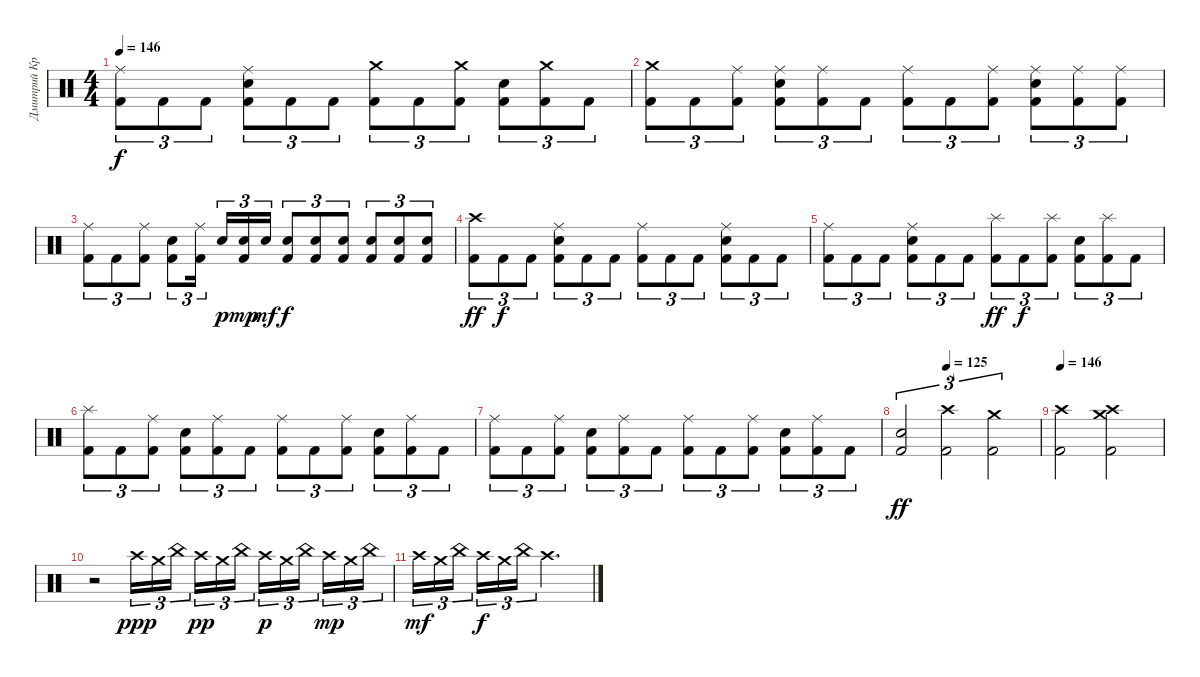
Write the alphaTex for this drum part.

\track ("Дмитрий Кривенков" "Дмитрий Кр") {instrument percussion}
\staff {score}
\articulation defaults
\ts (4 4)
\tempo 146
\clef neutral
\ks c
("Ride (middle)" "Kick (hit) 2").8{tu (3 2) dy f} "Kick (hit) 2".8{tu (3 2)} "Kick (hit) 2".8{tu (3 2)} ("Ride (middle)" "Electric Snare (hit)" "Kick (hit) 2").8{tu (3 2)} "Kick (hit) 2".8{tu (3 2)} "Kick (hit) 2".8{tu (3 2)} ("Crash medium (hit)" "Kick (hit) 2").8{tu (3 2)} "Kick (hit) 2".8{tu (3 2)} ("Crash medium (hit)" "Kick (hit) 2").8{tu (3 2)} ("Electric Snare (hit)" "Kick (hit) 2").8{tu (3 2)} ("Crash medium (hit)" "Kick (hit) 2").8{tu (3 2)} "Kick (hit) 2".8{tu (3 2)} |
("Crash medium (hit)" "Kick (hit) 2").8{tu (3 2)} "Kick (hit) 2".8{tu (3 2)} ("Ride (middle)" "Kick (hit) 2").8{tu (3 2)} ("Ride (middle)" "Electric Snare (hit)" "Kick (hit) 2").8{tu (3 2)} ("Ride (middle)" "Kick (hit) 2").8{tu (3 2)} "Kick (hit) 2".8{tu (3 2)} ("Ride (middle)" "Kick (hit) 2").8{tu (3 2)} "Kick (hit) 2".8{tu (3 2)} ("Ride (middle)" "Kick (hit) 2").8{tu (3 2)} ("Ride (middle)" "Electric Snare (hit)" "Kick (hit) 2").8{tu (3 2)} ("Ride (middle)" "Kick (hit) 2").8{tu (3 2)} ("Ride (middle)" "Kick (hit) 2").8{tu (3 2)} |
("Ride (middle)" "Kick (hit) 2").8{tu (3 2)} "Kick (hit) 2".8{tu (3 2)} ("Ride (middle)" "Kick (hit) 2").8{tu (3 2)} ("Electric Snare (hit)" "Kick (hit) 2").8{tu (3 2)} ("Ride (middle)" "Kick (hit) 2").16{tu (3 2) beam splitsecondary} "Electric Snare (hit)".16{tu (3 2) dy p} ("Electric Snare (hit)" "Kick (hit) 2").16{tu (3 2) dy mp} "Electric Snare (hit)".16{tu (3 2) dy mf} ("Electric Snare (hit)" "Kick (hit) 2").8{tu (3 2) dy f} ("Electric Snare (hit)" "Kick (hit) 2").8{tu (3 2)} ("Electric Snare (hit)" "Kick (hit) 2").8{tu (3 2)} ("Electric Snare (hit)" "Kick (hit) 2").8{tu (3 2)} ("Electric Snare (hit)" "Kick (hit) 2").8{tu (3 2)} ("Electric Snare (hit)" "Kick (hit) 2").8{tu (3 2)} |
("Crash high (hit)" "Kick (hit) 2").8{tu (3 2) dy ff} "Kick (hit) 2".8{tu (3 2) dy f} "Kick (hit) 2".8{tu (3 2)} ("Ride (middle)" "Electric Snare (hit)" "Kick (hit) 2").8{tu (3 2)} "Kick (hit) 2".8{tu (3 2)} "Kick (hit) 2".8{tu (3 2)} ("Ride (middle)" "Kick (hit) 2").8{tu (3 2)} "Kick (hit) 2".8{tu (3 2)} "Kick (hit) 2".8{tu (3 2)} ("Ride (middle)" "Electric Snare (hit)" "Kick (hit) 2").8{tu (3 2)} "Kick (hit) 2".8{tu (3 2)} "Kick (hit) 2".8{tu (3 2)} |
("Ride (middle)" "Kick (hit) 2").8{tu (3 2)} "Kick (hit) 2".8{tu (3 2)} "Kick (hit) 2".8{tu (3 2)} ("Ride (middle)" "Electric Snare (hit)" "Kick (hit) 2").8{tu (3 2)} "Kick (hit) 2".8{tu (3 2)} "Kick (hit) 2".8{tu (3 2)} ("Splash (hit)" "Kick (hit) 2").8{tu (3 2) dy ff} "Kick (hit) 2".8{tu (3 2) dy f} ("Splash (hit)" "Kick (hit) 2").8{tu (3 2)} ("Electric Snare (hit)" "Kick (hit) 2").8{tu (3 2)} ("Splash (hit)" "Kick (hit) 2").8{tu (3 2)} "Kick (hit) 2".8{tu (3 2)} |
("Splash (hit)" "Kick (hit) 2").8{tu (3 2)} "Kick (hit) 2".8{tu (3 2)} ("Ride (middle)" "Kick (hit) 2").8{tu (3 2)} ("Electric Snare (hit)" "Kick (hit) 2").8{tu (3 2)} ("Ride (middle)" "Kick (hit) 2").8{tu (3 2)} "Kick (hit) 2".8{tu (3 2)} ("Ride (middle)" "Kick (hit) 2").8{tu (3 2)} "Kick (hit) 2".8{tu (3 2)} ("Ride (middle)" "Kick (hit) 2").8{tu (3 2)} ("Electric Snare (hit)" "Kick (hit) 2").8{tu (3 2)} ("Ride (middle)" "Kick (hit) 2").8{tu (3 2)} "Kick (hit) 2".8{tu (3 2)} |
("Ride (middle)" "Kick (hit) 2").8{tu (3 2)} "Kick (hit) 2".8{tu (3 2)} ("Ride (middle)" "Kick (hit) 2").8{tu (3 2)} ("Electric Snare (hit)" "Kick (hit) 2").8{tu (3 2)} ("Ride (middle)" "Kick (hit) 2").8{tu (3 2)} "Kick (hit) 2".8{tu (3 2)} ("Ride (middle)" "Kick (hit) 2").8{tu (3 2)} "Kick (hit) 2".8{tu (3 2)} ("Ride (middle)" "Kick (hit) 2").8{tu (3 2)} ("Electric Snare (hit)" "Kick (hit) 2").8{tu (3 2)} ("Ride (middle)" "Kick (hit) 2").8{tu (3 2)} "Kick (hit) 2".8{tu (3 2)} |
\tempo (125 0.3333333333333333)
("Electric Snare (hit)" "Kick (hit) 2").2{tu (3 2) dy ff} ("Crash high (hit)" "Kick (hit) 2").2{tu (3 2) txt ";)"} ("Crash medium (hit)" "Kick (hit) 2").2{tu (3 2)} |
\tempo 146
("Crash high (hit)" "Kick (hit) 2").2 ("Crash medium (hit)" "Crash high (hit)" "Kick (hit) 2").2 |
r.2 "Crash high (hit)".16{tu (3 2) dy ppp} "Crash medium (hit)".16{tu (3 2)} "China (hit)".16{tu (3 2) beam splitsecondary} "Crash high (hit)".16{tu (3 2) dy pp} "Crash medium (hit)".16{tu (3 2)} "China (hit)".16{tu (3 2)} "Crash high (hit)".16{tu (3 2) dy p} "Crash medium (hit)".16{tu (3 2)} "China (hit)".16{tu (3 2) beam splitsecondary} "Crash high (hit)".16{tu (3 2) dy mp} "Crash medium (hit)".16{tu (3 2)} "China (hit)".16{tu (3 2)} |
"Crash high (hit)".16{tu (3 2) dy mf volume 0} "Crash medium (hit)".16{tu (3 2)} "China (hit)".16{tu (3 2) beam splitsecondary} "Crash high (hit)".16{tu (3 2) dy f} "Crash medium (hit)".16{tu (3 2)} "China (hit)".16{tu (3 2)} "Crash high (hit)".2{d}
